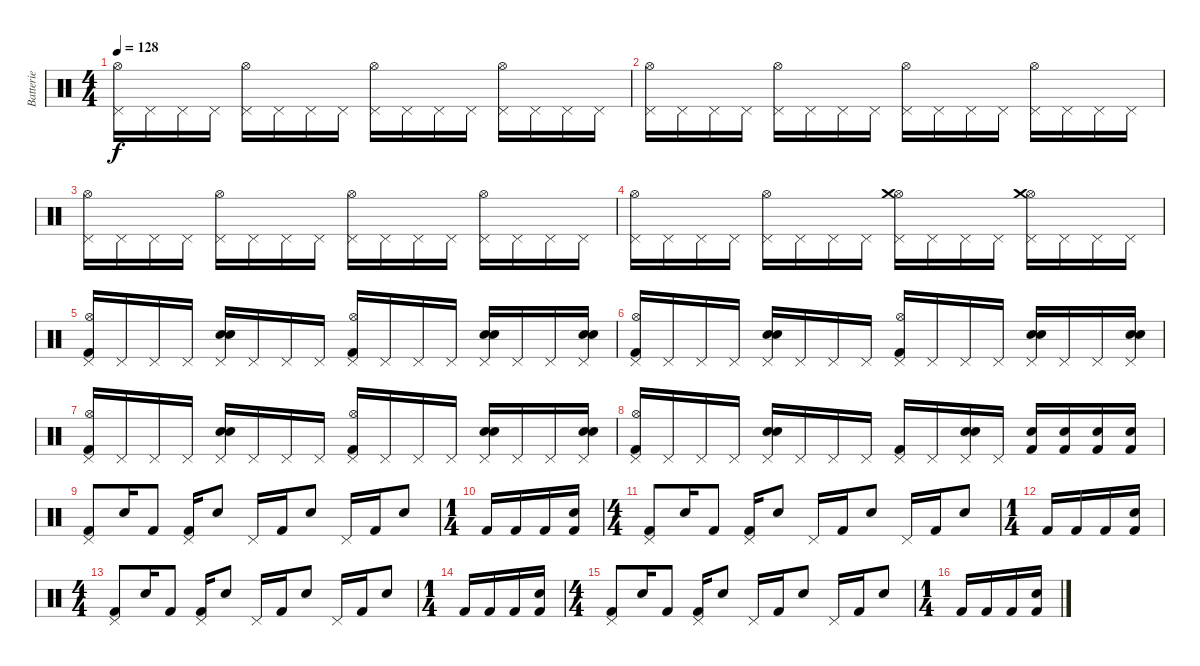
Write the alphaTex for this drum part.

\track ("Batterie" "Batterie") {instrument percussion}
\staff {score}
\articulation defaults
\ts (4 4)
\tempo 128
\clef neutral
\ks c
("Pedal Hi-Hat (hit)" "Hi-Hat (open)").16{dy f} "Pedal Hi-Hat (hit)".16 "Pedal Hi-Hat (hit)".16 "Pedal Hi-Hat (hit)".16 ("Pedal Hi-Hat (hit)" "Hi-Hat (open)").16 "Pedal Hi-Hat (hit)".16 "Pedal Hi-Hat (hit)".16 "Pedal Hi-Hat (hit)".16 ("Pedal Hi-Hat (hit)" "Hi-Hat (open)").16 "Pedal Hi-Hat (hit)".16 "Pedal Hi-Hat (hit)".16 "Pedal Hi-Hat (hit)".16 ("Pedal Hi-Hat (hit)" "Hi-Hat (open)").16 "Pedal Hi-Hat (hit)".16 "Pedal Hi-Hat (hit)".16 "Pedal Hi-Hat (hit)".16 |
("Pedal Hi-Hat (hit)" "Hi-Hat (open)").16 "Pedal Hi-Hat (hit)".16 "Pedal Hi-Hat (hit)".16 "Pedal Hi-Hat (hit)".16 ("Pedal Hi-Hat (hit)" "Hi-Hat (open)").16 "Pedal Hi-Hat (hit)".16 "Pedal Hi-Hat (hit)".16 "Pedal Hi-Hat (hit)".16 ("Pedal Hi-Hat (hit)" "Hi-Hat (open)").16 "Pedal Hi-Hat (hit)".16 "Pedal Hi-Hat (hit)".16 "Pedal Hi-Hat (hit)".16 ("Pedal Hi-Hat (hit)" "Hi-Hat (open)").16 "Pedal Hi-Hat (hit)".16 "Pedal Hi-Hat (hit)".16 "Pedal Hi-Hat (hit)".16 |
("Pedal Hi-Hat (hit)" "Hi-Hat (open)").16 "Pedal Hi-Hat (hit)".16 "Pedal Hi-Hat (hit)".16 "Pedal Hi-Hat (hit)".16 ("Pedal Hi-Hat (hit)" "Hi-Hat (open)").16 "Pedal Hi-Hat (hit)".16 "Pedal Hi-Hat (hit)".16 "Pedal Hi-Hat (hit)".16 ("Pedal Hi-Hat (hit)" "Hi-Hat (open)").16 "Pedal Hi-Hat (hit)".16 "Pedal Hi-Hat (hit)".16 "Pedal Hi-Hat (hit)".16 ("Pedal Hi-Hat (hit)" "Hi-Hat (open)").16 "Pedal Hi-Hat (hit)".16 "Pedal Hi-Hat (hit)".16 "Pedal Hi-Hat (hit)".16 |
("Pedal Hi-Hat (hit)" "Hi-Hat (open)").16 "Pedal Hi-Hat (hit)".16 "Pedal Hi-Hat (hit)".16 "Pedal Hi-Hat (hit)".16 ("Pedal Hi-Hat (hit)" "Hi-Hat (open)").16 "Pedal Hi-Hat (hit)".16 "Pedal Hi-Hat (hit)".16 "Pedal Hi-Hat (hit)".16 ("Pedal Hi-Hat (hit)" "Hi-Hat (open)" "Crash medium (hit)").16 "Pedal Hi-Hat (hit)".16 "Pedal Hi-Hat (hit)".16 "Pedal Hi-Hat (hit)".16 ("Pedal Hi-Hat (hit)" "Hi-Hat (open)" "Crash medium (hit)").16 "Pedal Hi-Hat (hit)".16 "Pedal Hi-Hat (hit)".16 "Pedal Hi-Hat (hit)".16 |
("Pedal Hi-Hat (hit)" "Hi-Hat (open)" "Kick (hit) 2").16 "Pedal Hi-Hat (hit)".16 "Pedal Hi-Hat (hit)".16 "Pedal Hi-Hat (hit)".16 ("Pedal Hi-Hat (hit)" "Electric Snare (hit)" "Snare (hit) 2").16 "Pedal Hi-Hat (hit)".16 "Pedal Hi-Hat (hit)".16 "Pedal Hi-Hat (hit)".16 ("Pedal Hi-Hat (hit)" "Hi-Hat (open)" "Kick (hit) 2").16 "Pedal Hi-Hat (hit)".16 "Pedal Hi-Hat (hit)".16 "Pedal Hi-Hat (hit)".16 ("Pedal Hi-Hat (hit)" "Electric Snare (hit)" "Snare (hit) 2").16 "Pedal Hi-Hat (hit)".16 "Pedal Hi-Hat (hit)".16 ("Pedal Hi-Hat (hit)" "Electric Snare (hit)" "Snare (hit) 2").16 |
("Pedal Hi-Hat (hit)" "Hi-Hat (open)" "Kick (hit) 2").16 "Pedal Hi-Hat (hit)".16 "Pedal Hi-Hat (hit)".16 "Pedal Hi-Hat (hit)".16 ("Pedal Hi-Hat (hit)" "Electric Snare (hit)" "Snare (hit) 2").16 "Pedal Hi-Hat (hit)".16 "Pedal Hi-Hat (hit)".16 "Pedal Hi-Hat (hit)".16 ("Pedal Hi-Hat (hit)" "Hi-Hat (open)" "Kick (hit) 2").16 "Pedal Hi-Hat (hit)".16 "Pedal Hi-Hat (hit)".16 "Pedal Hi-Hat (hit)".16 ("Pedal Hi-Hat (hit)" "Electric Snare (hit)" "Snare (hit) 2").16 "Pedal Hi-Hat (hit)".16 "Pedal Hi-Hat (hit)".16 ("Pedal Hi-Hat (hit)" "Electric Snare (hit)" "Snare (hit) 2").16 |
("Pedal Hi-Hat (hit)" "Hi-Hat (open)" "Kick (hit) 2").16 "Pedal Hi-Hat (hit)".16 "Pedal Hi-Hat (hit)".16 "Pedal Hi-Hat (hit)".16 ("Pedal Hi-Hat (hit)" "Electric Snare (hit)" "Snare (hit) 2").16 "Pedal Hi-Hat (hit)".16 "Pedal Hi-Hat (hit)".16 "Pedal Hi-Hat (hit)".16 ("Pedal Hi-Hat (hit)" "Hi-Hat (open)" "Kick (hit) 2").16 "Pedal Hi-Hat (hit)".16 "Pedal Hi-Hat (hit)".16 "Pedal Hi-Hat (hit)".16 ("Pedal Hi-Hat (hit)" "Electric Snare (hit)" "Snare (hit) 2").16 "Pedal Hi-Hat (hit)".16 "Pedal Hi-Hat (hit)".16 ("Pedal Hi-Hat (hit)" "Electric Snare (hit)" "Snare (hit) 2").16 |
("Pedal Hi-Hat (hit)" "Hi-Hat (open)" "Kick (hit) 2").16 "Pedal Hi-Hat (hit)".16 "Pedal Hi-Hat (hit)".16 "Pedal Hi-Hat (hit)".16 ("Pedal Hi-Hat (hit)" "Electric Snare (hit)" "Snare (hit) 2").16 "Pedal Hi-Hat (hit)".16 "Pedal Hi-Hat (hit)".16 "Pedal Hi-Hat (hit)".16 ("Pedal Hi-Hat (hit)" "Kick (hit) 2").16 "Pedal Hi-Hat (hit)".16 ("Pedal Hi-Hat (hit)" "Electric Snare (hit)" "Snare (hit) 2").16 "Pedal Hi-Hat (hit)".16 ("Electric Snare (hit)" "Kick (hit) 2").16 ("Electric Snare (hit)" "Kick (hit) 2").16 ("Electric Snare (hit)" "Kick (hit) 2").16 ("Electric Snare (hit)" "Kick (hit) 2").16 |
("Pedal Hi-Hat (hit)" "Kick (hit) 2").8 "Electric Snare (hit)".16 "Kick (hit) 2".8 ("Pedal Hi-Hat (hit)" "Kick (hit) 2").16 "Electric Snare (hit)".8 "Pedal Hi-Hat (hit)".16 "Kick (hit) 2".16 "Electric Snare (hit)".8 "Pedal Hi-Hat (hit)".16 "Kick (hit) 2".16 "Electric Snare (hit)".8 |
\ts (1 4)
"Kick (hit) 2".16 "Kick (hit) 2".16 "Kick (hit) 2".16 ("Electric Snare (hit)" "Kick (hit) 2").16 |
\ts (4 4)
("Pedal Hi-Hat (hit)" "Kick (hit) 2").8 "Electric Snare (hit)".16 "Kick (hit) 2".8 ("Pedal Hi-Hat (hit)" "Kick (hit) 2").16 "Electric Snare (hit)".8 "Pedal Hi-Hat (hit)".16 "Kick (hit) 2".16 "Electric Snare (hit)".8 "Pedal Hi-Hat (hit)".16 "Kick (hit) 2".16 "Electric Snare (hit)".8 |
\ts (1 4)
"Kick (hit) 2".16 "Kick (hit) 2".16 "Kick (hit) 2".16 ("Electric Snare (hit)" "Kick (hit) 2").16 |
\ts (4 4)
("Pedal Hi-Hat (hit)" "Kick (hit) 2").8 "Electric Snare (hit)".16 "Kick (hit) 2".8 ("Pedal Hi-Hat (hit)" "Kick (hit) 2").16 "Electric Snare (hit)".8 "Pedal Hi-Hat (hit)".16 "Kick (hit) 2".16 "Electric Snare (hit)".8 "Pedal Hi-Hat (hit)".16 "Kick (hit) 2".16 "Electric Snare (hit)".8 |
\ts (1 4)
"Kick (hit) 2".16 "Kick (hit) 2".16 "Kick (hit) 2".16 ("Electric Snare (hit)" "Kick (hit) 2").16 |
\ts (4 4)
("Pedal Hi-Hat (hit)" "Kick (hit) 2").8 "Electric Snare (hit)".16 "Kick (hit) 2".8 ("Pedal Hi-Hat (hit)" "Kick (hit) 2").16 "Electric Snare (hit)".8 "Pedal Hi-Hat (hit)".16 "Kick (hit) 2".16 "Electric Snare (hit)".8 "Pedal Hi-Hat (hit)".16 "Kick (hit) 2".16 "Electric Snare (hit)".8 |
\ts (1 4)
"Kick (hit) 2".16 "Kick (hit) 2".16 "Kick (hit) 2".16 ("Electric Snare (hit)" "Kick (hit) 2").16
